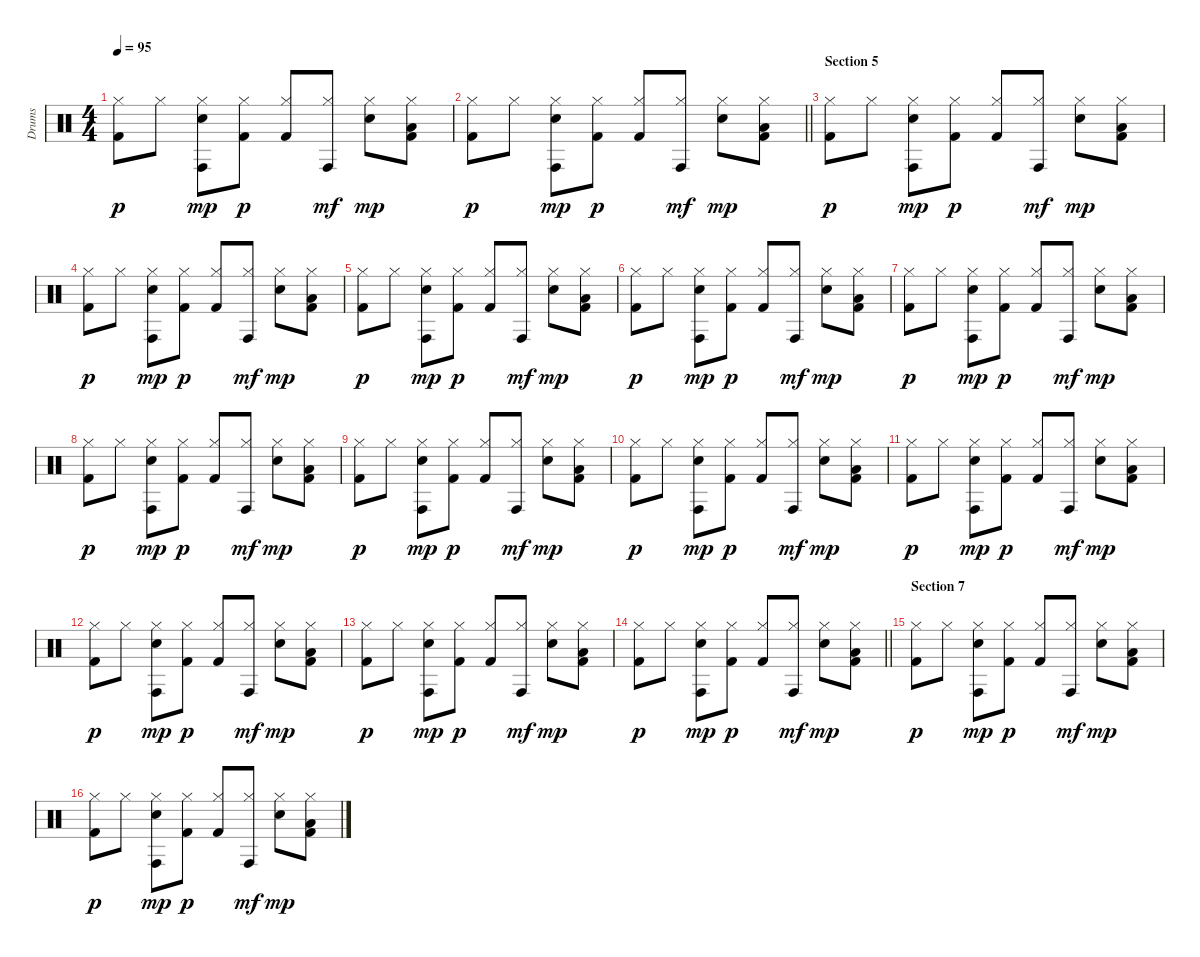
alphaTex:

\track ("Drums" "Drums") {instrument percussion}
\staff {score}
\articulation defaults
\ts (4 4)
\tempo 95
\clef neutral
\ks c
("Hi-Hat (closed)" "Kick (hit) 2").8{dy p} "Hi-Hat (closed)".8 ("Hi-Hat (closed)" "Conga high (hit)" "Electric Snare (hit)").8{dy mp} ("Hi-Hat (closed)" "Kick (hit) 2").8{dy p} ("Hi-Hat (closed)" "Kick (hit) 2").8 ("Hi-Hat (closed)" "Conga high (hit)").8{dy mf} ("Hi-Hat (closed)" "Electric Snare (hit)").8{dy mp} ("Hi-Hat (closed)" "Low Tom (hit)" "Kick (hit) 2").8 |
\barLineRight lightlight
("Hi-Hat (closed)" "Kick (hit) 2").8{dy p} "Hi-Hat (closed)".8 ("Hi-Hat (closed)" "Conga high (hit)" "Electric Snare (hit)").8{dy mp} ("Hi-Hat (closed)" "Kick (hit) 2").8{dy p} ("Hi-Hat (closed)" "Kick (hit) 2").8 ("Hi-Hat (closed)" "Conga high (hit)").8{dy mf} ("Hi-Hat (closed)" "Electric Snare (hit)").8{dy mp} ("Hi-Hat (closed)" "Low Tom (hit)" "Kick (hit) 2").8 |
\section ("" "Section 5")
("Hi-Hat (closed)" "Kick (hit) 2").8{dy p} "Hi-Hat (closed)".8 ("Hi-Hat (closed)" "Conga high (hit)" "Electric Snare (hit)").8{dy mp} ("Hi-Hat (closed)" "Kick (hit) 2").8{dy p} ("Hi-Hat (closed)" "Kick (hit) 2").8 ("Hi-Hat (closed)" "Conga high (hit)").8{dy mf} ("Hi-Hat (closed)" "Electric Snare (hit)").8{dy mp} ("Hi-Hat (closed)" "Low Tom (hit)" "Kick (hit) 2").8 |
("Hi-Hat (closed)" "Kick (hit) 2").8{dy p} "Hi-Hat (closed)".8 ("Hi-Hat (closed)" "Conga high (hit)" "Electric Snare (hit)").8{dy mp} ("Hi-Hat (closed)" "Kick (hit) 2").8{dy p} ("Hi-Hat (closed)" "Kick (hit) 2").8 ("Hi-Hat (closed)" "Conga high (hit)").8{dy mf} ("Hi-Hat (closed)" "Electric Snare (hit)").8{dy mp} ("Hi-Hat (closed)" "Low Tom (hit)" "Kick (hit) 2").8 |
("Hi-Hat (closed)" "Kick (hit) 2").8{dy p} "Hi-Hat (closed)".8 ("Hi-Hat (closed)" "Conga high (hit)" "Electric Snare (hit)").8{dy mp} ("Hi-Hat (closed)" "Kick (hit) 2").8{dy p} ("Hi-Hat (closed)" "Kick (hit) 2").8 ("Hi-Hat (closed)" "Conga high (hit)").8{dy mf} ("Hi-Hat (closed)" "Electric Snare (hit)").8{dy mp} ("Hi-Hat (closed)" "Low Tom (hit)" "Kick (hit) 2").8 |
("Hi-Hat (closed)" "Kick (hit) 2").8{dy p} "Hi-Hat (closed)".8 ("Hi-Hat (closed)" "Conga high (hit)" "Electric Snare (hit)").8{dy mp} ("Hi-Hat (closed)" "Kick (hit) 2").8{dy p} ("Hi-Hat (closed)" "Kick (hit) 2").8 ("Hi-Hat (closed)" "Conga high (hit)").8{dy mf} ("Hi-Hat (closed)" "Electric Snare (hit)").8{dy mp} ("Hi-Hat (closed)" "Low Tom (hit)" "Kick (hit) 2").8 |
("Hi-Hat (closed)" "Kick (hit) 2").8{dy p} "Hi-Hat (closed)".8 ("Hi-Hat (closed)" "Conga high (hit)" "Electric Snare (hit)").8{dy mp} ("Hi-Hat (closed)" "Kick (hit) 2").8{dy p} ("Hi-Hat (closed)" "Kick (hit) 2").8 ("Hi-Hat (closed)" "Conga high (hit)").8{dy mf} ("Hi-Hat (closed)" "Electric Snare (hit)").8{dy mp} ("Hi-Hat (closed)" "Low Tom (hit)" "Kick (hit) 2").8 |
("Hi-Hat (closed)" "Kick (hit) 2").8{dy p} "Hi-Hat (closed)".8 ("Hi-Hat (closed)" "Conga high (hit)" "Electric Snare (hit)").8{dy mp} ("Hi-Hat (closed)" "Kick (hit) 2").8{dy p} ("Hi-Hat (closed)" "Kick (hit) 2").8 ("Hi-Hat (closed)" "Conga high (hit)").8{dy mf} ("Hi-Hat (closed)" "Electric Snare (hit)").8{dy mp} ("Hi-Hat (closed)" "Low Tom (hit)" "Kick (hit) 2").8 |
("Hi-Hat (closed)" "Kick (hit) 2").8{dy p} "Hi-Hat (closed)".8 ("Hi-Hat (closed)" "Conga high (hit)" "Electric Snare (hit)").8{dy mp} ("Hi-Hat (closed)" "Kick (hit) 2").8{dy p} ("Hi-Hat (closed)" "Kick (hit) 2").8 ("Hi-Hat (closed)" "Conga high (hit)").8{dy mf} ("Hi-Hat (closed)" "Electric Snare (hit)").8{dy mp} ("Hi-Hat (closed)" "Low Tom (hit)" "Kick (hit) 2").8 |
("Hi-Hat (closed)" "Kick (hit) 2").8{dy p} "Hi-Hat (closed)".8 ("Hi-Hat (closed)" "Conga high (hit)" "Electric Snare (hit)").8{dy mp} ("Hi-Hat (closed)" "Kick (hit) 2").8{dy p} ("Hi-Hat (closed)" "Kick (hit) 2").8 ("Hi-Hat (closed)" "Conga high (hit)").8{dy mf} ("Hi-Hat (closed)" "Electric Snare (hit)").8{dy mp} ("Hi-Hat (closed)" "Low Tom (hit)" "Kick (hit) 2").8 |
("Hi-Hat (closed)" "Kick (hit) 2").8{dy p} "Hi-Hat (closed)".8 ("Hi-Hat (closed)" "Conga high (hit)" "Electric Snare (hit)").8{dy mp} ("Hi-Hat (closed)" "Kick (hit) 2").8{dy p} ("Hi-Hat (closed)" "Kick (hit) 2").8 ("Hi-Hat (closed)" "Conga high (hit)").8{dy mf} ("Hi-Hat (closed)" "Electric Snare (hit)").8{dy mp} ("Hi-Hat (closed)" "Low Tom (hit)" "Kick (hit) 2").8 |
("Hi-Hat (closed)" "Kick (hit) 2").8{dy p} "Hi-Hat (closed)".8 ("Hi-Hat (closed)" "Conga high (hit)" "Electric Snare (hit)").8{dy mp} ("Hi-Hat (closed)" "Kick (hit) 2").8{dy p} ("Hi-Hat (closed)" "Kick (hit) 2").8 ("Hi-Hat (closed)" "Conga high (hit)").8{dy mf} ("Hi-Hat (closed)" "Electric Snare (hit)").8{dy mp} ("Hi-Hat (closed)" "Low Tom (hit)" "Kick (hit) 2").8 |
("Hi-Hat (closed)" "Kick (hit) 2").8{dy p} "Hi-Hat (closed)".8 ("Hi-Hat (closed)" "Conga high (hit)" "Electric Snare (hit)").8{dy mp} ("Hi-Hat (closed)" "Kick (hit) 2").8{dy p} ("Hi-Hat (closed)" "Kick (hit) 2").8 ("Hi-Hat (closed)" "Conga high (hit)").8{dy mf} ("Hi-Hat (closed)" "Electric Snare (hit)").8{dy mp} ("Hi-Hat (closed)" "Low Tom (hit)" "Kick (hit) 2").8 |
\barLineRight lightlight
("Hi-Hat (closed)" "Kick (hit) 2").8{dy p} "Hi-Hat (closed)".8 ("Hi-Hat (closed)" "Conga high (hit)" "Electric Snare (hit)").8{dy mp} ("Hi-Hat (closed)" "Kick (hit) 2").8{dy p} ("Hi-Hat (closed)" "Kick (hit) 2").8 ("Hi-Hat (closed)" "Conga high (hit)").8{dy mf} ("Hi-Hat (closed)" "Electric Snare (hit)").8{dy mp} ("Hi-Hat (closed)" "Low Tom (hit)" "Kick (hit) 2").8 |
\section ("" "Section 7")
("Hi-Hat (closed)" "Kick (hit) 2").8{dy p} "Hi-Hat (closed)".8 ("Hi-Hat (closed)" "Conga high (hit)" "Electric Snare (hit)").8{dy mp} ("Hi-Hat (closed)" "Kick (hit) 2").8{dy p} ("Hi-Hat (closed)" "Kick (hit) 2").8 ("Hi-Hat (closed)" "Conga high (hit)").8{dy mf} ("Hi-Hat (closed)" "Electric Snare (hit)").8{dy mp} ("Hi-Hat (closed)" "Low Tom (hit)" "Kick (hit) 2").8 |
("Hi-Hat (closed)" "Kick (hit) 2").8{dy p} "Hi-Hat (closed)".8 ("Hi-Hat (closed)" "Conga high (hit)" "Electric Snare (hit)").8{dy mp} ("Hi-Hat (closed)" "Kick (hit) 2").8{dy p} ("Hi-Hat (closed)" "Kick (hit) 2").8 ("Hi-Hat (closed)" "Conga high (hit)").8{dy mf} ("Hi-Hat (closed)" "Electric Snare (hit)").8{dy mp} ("Hi-Hat (closed)" "Low Tom (hit)" "Kick (hit) 2").8
